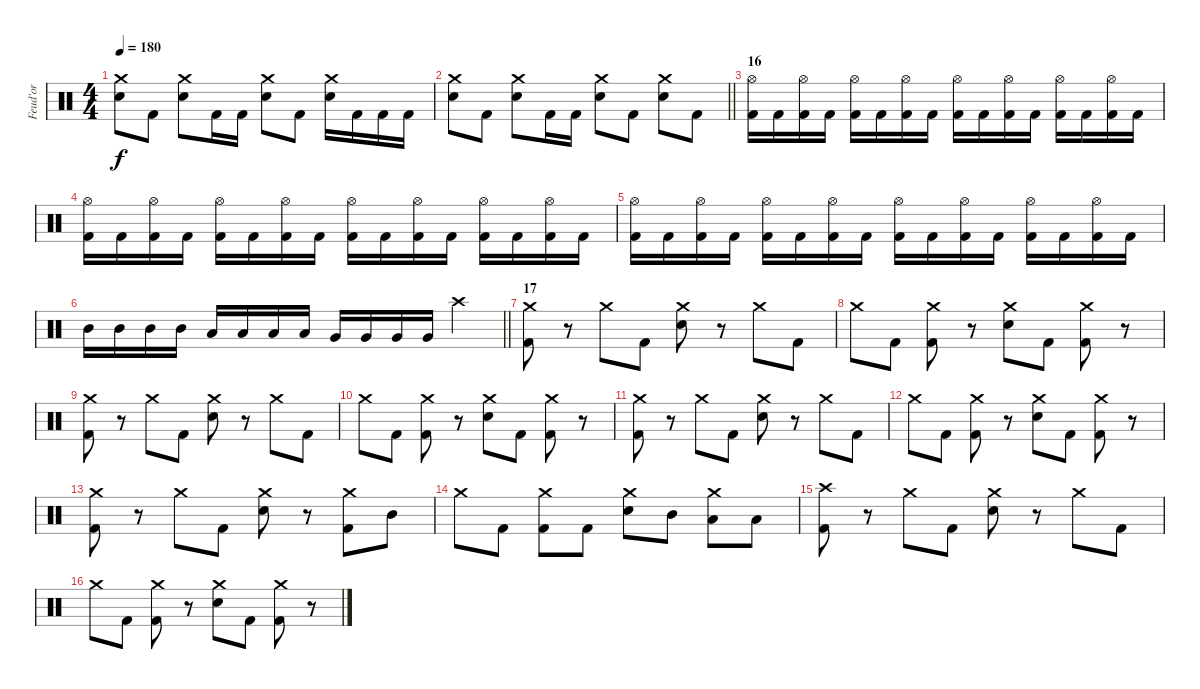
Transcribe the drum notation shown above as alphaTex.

\track ("Feud'or" "Feud'or") {instrument percussion}
\staff {score}
\articulation defaults
\ts (4 4)
\tempo 180
\clef neutral
\ks c
("Crash medium (hit)" "Snare (hit) 2").8{dy f} "Kick (hit) 2".8 ("Crash medium (hit)" "Snare (hit) 2").8 "Kick (hit) 2".16 "Kick (hit) 2".16 ("Crash medium (hit)" "Snare (hit) 2").8 "Kick (hit) 2".8 ("Crash medium (hit)" "Snare (hit) 2").16 "Kick (hit) 2".16 "Kick (hit) 2".16 "Kick (hit) 2".16 |
\barLineRight lightlight
("Crash medium (hit)" "Snare (hit) 2").8 "Kick (hit) 2".8 ("Crash medium (hit)" "Snare (hit) 2").8 "Kick (hit) 2".16 "Kick (hit) 2".16 ("Crash medium (hit)" "Snare (hit) 2").8 "Kick (hit) 2".8 ("Crash medium (hit)" "Snare (hit) 2").8 "Kick (hit) 2".8 |
\section ("" "16")
("Hi-Hat (open)" "Kick (hit) 2").16 "Kick (hit) 2".16 ("Hi-Hat (open)" "Kick (hit) 2").16 "Kick (hit) 2".16 ("Hi-Hat (open)" "Kick (hit) 2").16 "Kick (hit) 2".16 ("Hi-Hat (open)" "Kick (hit) 2").16 "Kick (hit) 2".16 ("Hi-Hat (open)" "Kick (hit) 2").16 "Kick (hit) 2".16 ("Hi-Hat (open)" "Kick (hit) 2").16 "Kick (hit) 2".16 ("Hi-Hat (open)" "Kick (hit) 2").16 "Kick (hit) 2".16 ("Hi-Hat (open)" "Kick (hit) 2").16 "Kick (hit) 2".16 |
("Hi-Hat (open)" "Kick (hit) 2").16 "Kick (hit) 2".16 ("Hi-Hat (open)" "Kick (hit) 2").16 "Kick (hit) 2".16 ("Hi-Hat (open)" "Kick (hit) 2").16 "Kick (hit) 2".16 ("Hi-Hat (open)" "Kick (hit) 2").16 "Kick (hit) 2".16 ("Hi-Hat (open)" "Kick (hit) 2").16 "Kick (hit) 2".16 ("Hi-Hat (open)" "Kick (hit) 2").16 "Kick (hit) 2".16 ("Hi-Hat (open)" "Kick (hit) 2").16 "Kick (hit) 2".16 ("Hi-Hat (open)" "Kick (hit) 2").16 "Kick (hit) 2".16 |
("Hi-Hat (open)" "Kick (hit) 2").16 "Kick (hit) 2".16 ("Hi-Hat (open)" "Kick (hit) 2").16 "Kick (hit) 2".16 ("Hi-Hat (open)" "Kick (hit) 2").16 "Kick (hit) 2".16 ("Hi-Hat (open)" "Kick (hit) 2").16 "Kick (hit) 2".16 ("Hi-Hat (open)" "Kick (hit) 2").16 "Kick (hit) 2".16 ("Hi-Hat (open)" "Kick (hit) 2").16 "Kick (hit) 2".16 ("Hi-Hat (open)" "Kick (hit) 2").16 "Kick (hit) 2".16 ("Hi-Hat (open)" "Kick (hit) 2").16 "Kick (hit) 2".16 |
\barLineRight lightlight "Mid Tom (hit)".16 "Mid Tom (hit)".16 "Mid Tom (hit)".16 "Mid Tom (hit)".16 "Low Tom (hit)".16 "Low Tom (hit)".16 "Low Tom (hit)".16 "Low Tom (hit)".16 "Very Low Tom (hit)".16 "Very Low Tom (hit)".16 "Very Low Tom (hit)".16 "Very Low Tom (hit)".16 "Crash high (hit)".4
|
\section ("" "17")
("Crash medium (hit)" "Kick (hit) 2").8 r.8 "Crash medium (hit)".8 "Kick (hit) 2".8 ("Crash medium (hit)" "Snare (hit) 2").8 r.8 "Crash medium (hit)".8 "Kick (hit) 2".8 |
"Crash medium (hit)".8 "Kick (hit) 2".8 ("Crash medium (hit)" "Kick (hit) 2").8 r.8 ("Crash medium (hit)" "Snare (hit) 2").8 "Kick (hit) 2".8 ("Crash medium (hit)" "Kick (hit) 2").8 r.8 |
("Crash medium (hit)" "Kick (hit) 2").8 r.8 "Crash medium (hit)".8 "Kick (hit) 2".8 ("Crash medium (hit)" "Snare (hit) 2").8 r.8 "Crash medium (hit)".8 "Kick (hit) 2".8 |
"Crash medium (hit)".8 "Kick (hit) 2".8 ("Crash medium (hit)" "Kick (hit) 2").8 r.8 ("Crash medium (hit)" "Snare (hit) 2").8 "Kick (hit) 2".8 ("Crash medium (hit)" "Kick (hit) 2").8 r.8 |
("Crash medium (hit)" "Kick (hit) 2").8 r.8 "Crash medium (hit)".8 "Kick (hit) 2".8 ("Crash medium (hit)" "Snare (hit) 2").8 r.8 "Crash medium (hit)".8 "Kick (hit) 2".8 |
"Crash medium (hit)".8 "Kick (hit) 2".8 ("Crash medium (hit)" "Kick (hit) 2").8 r.8 ("Crash medium (hit)" "Snare (hit) 2").8 "Kick (hit) 2".8 ("Crash medium (hit)" "Kick (hit) 2").8 r.8 |
("Crash medium (hit)" "Kick (hit) 2").8 r.8 "Crash medium (hit)".8 "Kick (hit) 2".8 ("Crash medium (hit)" "Snare (hit) 2").8 r.8 ("Crash medium (hit)" "Kick (hit) 2").8 "Mid Tom (hit)".8 |
"Crash medium (hit)".8 "Kick (hit) 2".8 ("Crash medium (hit)" "Kick (hit) 2").8 "Kick (hit) 2".8 ("Crash medium (hit)" "Snare (hit) 2").8 "Mid Tom (hit)".8 ("Crash medium (hit)" "Low Tom (hit)").8 "Low Tom (hit)".8 |
("Crash high (hit)" "Kick (hit) 2").8 r.8 "Crash medium (hit)".8 "Kick (hit) 2".8 ("Crash medium (hit)" "Snare (hit) 2").8 r.8 "Crash medium (hit)".8 "Kick (hit) 2".8 |
"Crash medium (hit)".8 "Kick (hit) 2".8 ("Crash medium (hit)" "Kick (hit) 2").8 r.8 ("Crash medium (hit)" "Snare (hit) 2").8 "Kick (hit) 2".8 ("Crash medium (hit)" "Kick (hit) 2").8 r.8
